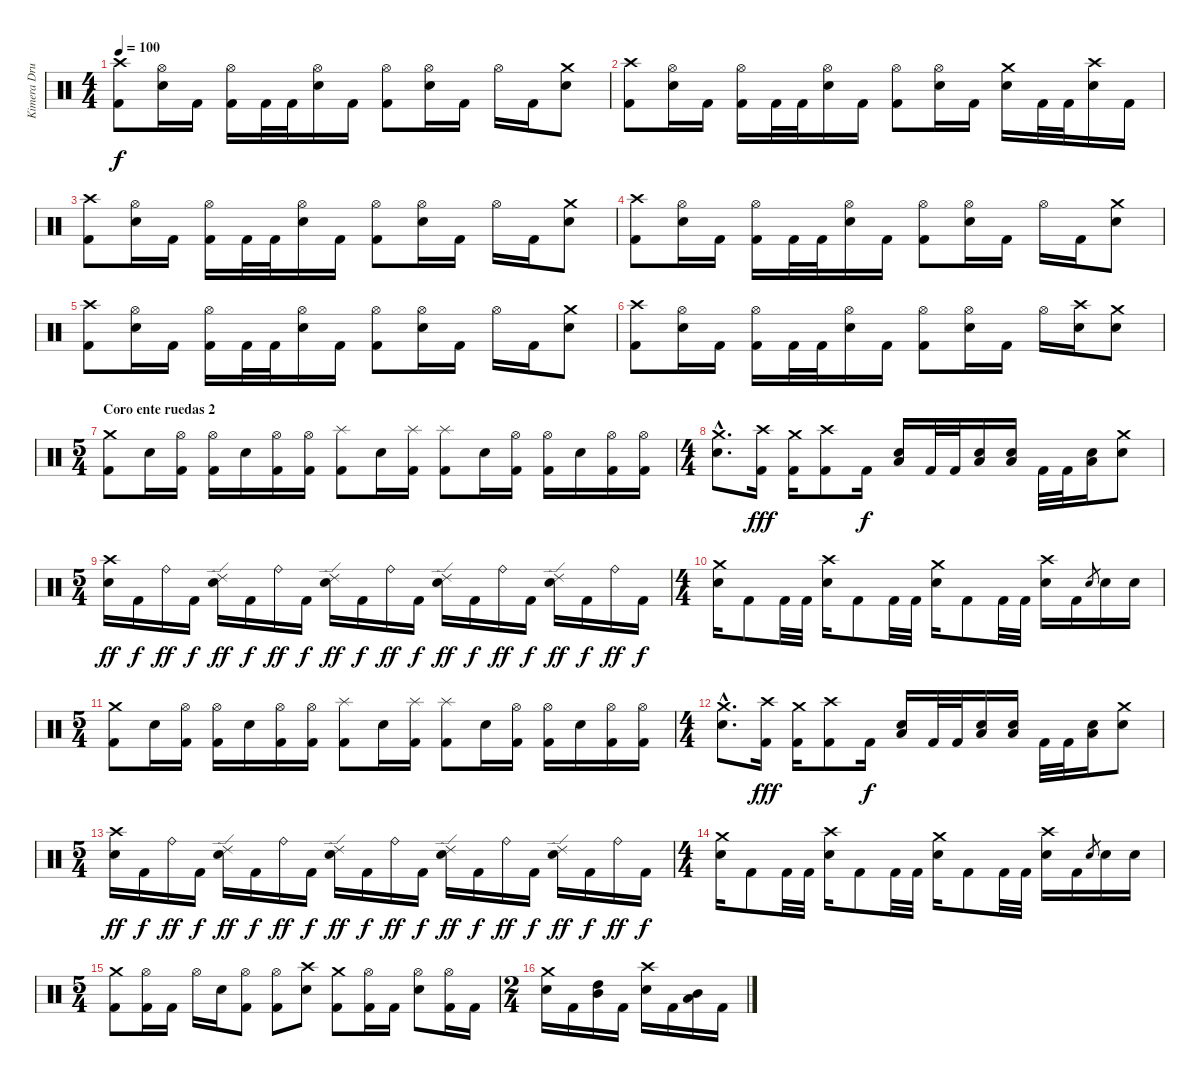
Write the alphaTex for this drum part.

\track ("Kimera Drummer" "Kimera Dru") {instrument percussion}
\staff {score}
\articulation defaults
\ts (4 4)
\tempo 100
\clef neutral
\ks c
("Crash high (hit)" "Kick (hit) 2").8{dy f} ("Hi-Hat (open)" "Electric Snare (hit)").16 "Kick (hit) 2".16 ("Hi-Hat (open)" "Kick (hit) 2").16 "Kick (hit) 2".32 "Kick (hit) 2".32 ("Hi-Hat (open)" "Electric Snare (hit)").16 "Kick (hit) 2".16 ("Hi-Hat (open)" "Kick (hit) 2").8 ("Hi-Hat (open)" "Electric Snare (hit)").16 "Kick (hit) 2".16 "Hi-Hat (open)".16 "Kick (hit) 2".16 ("Crash medium (hit)" "Electric Snare (hit)").8 |
("Crash high (hit)" "Kick (hit) 2").8 ("Hi-Hat (open)" "Electric Snare (hit)").16 "Kick (hit) 2".16 ("Hi-Hat (open)" "Kick (hit) 2").16 "Kick (hit) 2".32 "Kick (hit) 2".32 ("Hi-Hat (open)" "Electric Snare (hit)").16 "Kick (hit) 2".16 ("Hi-Hat (open)" "Kick (hit) 2").8 ("Hi-Hat (open)" "Electric Snare (hit)").16 "Kick (hit) 2".16 ("Crash medium (hit)" "Electric Snare (hit)").16 "Kick (hit) 2".32 "Kick (hit) 2".32 ("Crash high (hit)" "Electric Snare (hit)").16 "Kick (hit) 2".16 |
("Crash high (hit)" "Kick (hit) 2").8 ("Hi-Hat (open)" "Electric Snare (hit)").16 "Kick (hit) 2".16 ("Hi-Hat (open)" "Kick (hit) 2").16 "Kick (hit) 2".32 "Kick (hit) 2".32 ("Hi-Hat (open)" "Electric Snare (hit)").16 "Kick (hit) 2".16 ("Hi-Hat (open)" "Kick (hit) 2").8 ("Hi-Hat (open)" "Electric Snare (hit)").16 "Kick (hit) 2".16 "Hi-Hat (open)".16 "Kick (hit) 2".16 ("Crash medium (hit)" "Electric Snare (hit)").8 |
("Crash high (hit)" "Kick (hit) 2").8 ("Hi-Hat (open)" "Electric Snare (hit)").16 "Kick (hit) 2".16 ("Hi-Hat (open)" "Kick (hit) 2").16 "Kick (hit) 2".32 "Kick (hit) 2".32 ("Hi-Hat (open)" "Electric Snare (hit)").16 "Kick (hit) 2".16 ("Hi-Hat (open)" "Kick (hit) 2").8 ("Hi-Hat (open)" "Electric Snare (hit)").16 "Kick (hit) 2".16 "Hi-Hat (open)".16 "Kick (hit) 2".16 ("Crash medium (hit)" "Electric Snare (hit)").8 |
("Crash high (hit)" "Kick (hit) 2").8 ("Hi-Hat (open)" "Electric Snare (hit)").16 "Kick (hit) 2".16 ("Hi-Hat (open)" "Kick (hit) 2").16 "Kick (hit) 2".32 "Kick (hit) 2".32 ("Hi-Hat (open)" "Electric Snare (hit)").16 "Kick (hit) 2".16 ("Hi-Hat (open)" "Kick (hit) 2").8 ("Hi-Hat (open)" "Electric Snare (hit)").16 "Kick (hit) 2".16 "Hi-Hat (open)".16 "Kick (hit) 2".16 ("Crash medium (hit)" "Electric Snare (hit)").8 |
("Crash high (hit)" "Kick (hit) 2").8 ("Hi-Hat (open)" "Electric Snare (hit)").16 "Kick (hit) 2".16 ("Hi-Hat (open)" "Kick (hit) 2").16 "Kick (hit) 2".32 "Kick (hit) 2".32 ("Hi-Hat (open)" "Electric Snare (hit)").16 "Kick (hit) 2".16 ("Hi-Hat (open)" "Kick (hit) 2").8 ("Hi-Hat (open)" "Electric Snare (hit)").16 "Kick (hit) 2".16 "Hi-Hat (open)".16 ("Crash high (hit)" "Electric Snare (hit)").16 ("Crash medium (hit)" "Electric Snare (hit)").8 |
\ts (5 4)
\section ("" "Coro ente ruedas 2")
("Crash medium (hit)" "Kick (hit) 2").8 "Electric Snare (hit)".16 ("Hi-Hat (open)" "Kick (hit) 2").16 ("Hi-Hat (open)" "Kick (hit) 2").16 "Electric Snare (hit)".16 ("Hi-Hat (open)" "Kick (hit) 2").16 ("Hi-Hat (open)" "Kick (hit) 2").16 ("Splash (hit)" "Kick (hit) 2").8 "Electric Snare (hit)".16 ("Splash (hit)" "Kick (hit) 2").16 ("Splash (hit)" "Kick (hit) 2").8 "Electric Snare (hit)".16 ("Hi-Hat (open)" "Kick (hit) 2").16 ("Hi-Hat (open)" "Kick (hit) 2").16 "Electric Snare (hit)".16 ("Hi-Hat (open)" "Kick (hit) 2").16 ("Hi-Hat (open)" "Kick (hit) 2").16 |
\ts (4 4)
("Crash medium (hit)"{hac} "Electric Snare (hit)"{hac}).8{d} ("Crash high (hit)" "Kick (hit) 2").16{dy fff} ("Crash medium (hit)" "Kick (hit) 2").16 ("Crash high (hit)" "Kick (hit) 2").8 "Kick (hit) 2".16{dy f} ("Electric Snare (hit)" "Low Floor Tom (hit)").16 "Kick (hit) 2".32 "Kick (hit) 2".32 ("Electric Snare (hit)" "Low Floor Tom (hit)").16 ("Electric Snare (hit)" "Low Floor Tom (hit)").16 "Kick (hit) 2".32 "Kick (hit) 2".32 ("Electric Snare (hit)" "Low Floor Tom (hit)").16 ("Crash medium (hit)" "Electric Snare (hit)").8 |
\ts (5 4)
("Crash high (hit)" "Electric Snare (hit)").16{dy ff} "Kick (hit) 2".16{dy f} "Ride (bell)".16{dy ff} "Kick (hit) 2".16{dy f} ("Ride (edge) 2" "Electric Snare (hit)").16{dy ff} "Kick (hit) 2".16{dy f} "Ride (bell)".16{dy ff} "Kick (hit) 2".16{dy f} ("Ride (edge) 2" "Electric Snare (hit)").16{dy ff} "Kick (hit) 2".16{dy f} "Ride (bell)".16{dy ff} "Kick (hit) 2".16{dy f} ("Ride (edge) 2" "Electric Snare (hit)").16{dy ff} "Kick (hit) 2".16{dy f} "Ride (bell)".16{dy ff} "Kick (hit) 2".16{dy f} ("Ride (edge) 2" "Electric Snare (hit)").16{dy ff} "Kick (hit) 2".16{dy f} "Ride (bell)".16{dy ff} "Kick (hit) 2".16{dy f} |
\ts (4 4)
("Crash medium (hit)" "Electric Snare (hit)").16 "Kick (hit) 2".8 "Kick (hit) 2".32 "Kick (hit) 2".32 ("Crash high (hit)" "Electric Snare (hit)").16 "Kick (hit) 2".8 "Kick (hit) 2".32 "Kick (hit) 2".32 ("Crash medium (hit)" "Electric Snare (hit)").16 "Kick (hit) 2".8 "Kick (hit) 2".32 "Kick (hit) 2".32 ("Crash high (hit)" "Electric Snare (hit)").16 "Kick (hit) 2".16 "Electric Snare (hit)".8{gr} "Electric Snare (hit)".16 "Electric Snare (hit)".16 |
\ts (5 4)
("Crash medium (hit)" "Kick (hit) 2").8 "Electric Snare (hit)".16 ("Hi-Hat (open)" "Kick (hit) 2").16 ("Hi-Hat (open)" "Kick (hit) 2").16 "Electric Snare (hit)".16 ("Hi-Hat (open)" "Kick (hit) 2").16 ("Hi-Hat (open)" "Kick (hit) 2").16 ("Splash (hit)" "Kick (hit) 2").8 "Electric Snare (hit)".16 ("Splash (hit)" "Kick (hit) 2").16 ("Splash (hit)" "Kick (hit) 2").8 "Electric Snare (hit)".16 ("Hi-Hat (open)" "Kick (hit) 2").16 ("Hi-Hat (open)" "Kick (hit) 2").16 "Electric Snare (hit)".16 ("Hi-Hat (open)" "Kick (hit) 2").16 ("Hi-Hat (open)" "Kick (hit) 2").16 |
\ts (4 4)
("Crash medium (hit)"{hac} "Electric Snare (hit)"{hac}).8{d} ("Crash high (hit)" "Kick (hit) 2").16{dy fff} ("Crash medium (hit)" "Kick (hit) 2").16 ("Crash high (hit)" "Kick (hit) 2").8 "Kick (hit) 2".16{dy f} ("Electric Snare (hit)" "Low Floor Tom (hit)").16 "Kick (hit) 2".32 "Kick (hit) 2".32 ("Electric Snare (hit)" "Low Floor Tom (hit)").16 ("Electric Snare (hit)" "Low Floor Tom (hit)").16 "Kick (hit) 2".32 "Kick (hit) 2".32 ("Electric Snare (hit)" "Low Floor Tom (hit)").16 ("Crash medium (hit)" "Electric Snare (hit)").8 |
\ts (5 4)
("Crash high (hit)" "Electric Snare (hit)").16{dy ff} "Kick (hit) 2".16{dy f} "Ride (bell)".16{dy ff} "Kick (hit) 2".16{dy f} ("Ride (edge) 2" "Electric Snare (hit)").16{dy ff} "Kick (hit) 2".16{dy f} "Ride (bell)".16{dy ff} "Kick (hit) 2".16{dy f} ("Ride (edge) 2" "Electric Snare (hit)").16{dy ff} "Kick (hit) 2".16{dy f} "Ride (bell)".16{dy ff} "Kick (hit) 2".16{dy f} ("Ride (edge) 2" "Electric Snare (hit)").16{dy ff} "Kick (hit) 2".16{dy f} "Ride (bell)".16{dy ff} "Kick (hit) 2".16{dy f} ("Ride (edge) 2" "Electric Snare (hit)").16{dy ff} "Kick (hit) 2".16{dy f} "Ride (bell)".16{dy ff} "Kick (hit) 2".16{dy f} |
\ts (4 4)
("Crash medium (hit)" "Electric Snare (hit)").16 "Kick (hit) 2".8 "Kick (hit) 2".32 "Kick (hit) 2".32 ("Crash high (hit)" "Electric Snare (hit)").16 "Kick (hit) 2".8 "Kick (hit) 2".32 "Kick (hit) 2".32 ("Crash medium (hit)" "Electric Snare (hit)").16 "Kick (hit) 2".8 "Kick (hit) 2".32 "Kick (hit) 2".32 ("Crash high (hit)" "Electric Snare (hit)").16 "Kick (hit) 2".16 "Electric Snare (hit)".8{gr} "Electric Snare (hit)".16 "Electric Snare (hit)".16 |
\ts (5 4)
("Crash medium (hit)" "Kick (hit) 2").8 ("Hi-Hat (open)" "Kick (hit) 2").16 "Kick (hit) 2".16 "Hi-Hat (open)".16 "Electric Snare (hit)".16 ("Hi-Hat (open)" "Kick (hit) 2").8 ("Hi-Hat (open)" "Kick (hit) 2").8 ("Crash high (hit)" "Electric Snare (hit)").8 ("Crash medium (hit)" "Kick (hit) 2").8 ("Hi-Hat (open)" "Kick (hit) 2").16 "Kick (hit) 2".16 ("Hi-Hat (open)" "Electric Snare (hit)").8 ("Hi-Hat (open)" "Kick (hit) 2").16 "Kick (hit) 2".16 |
\ts (2 4)
("Crash medium (hit)" "Electric Snare (hit)").16 "Kick (hit) 2".16 ("High Tom (hit)" "Mid Tom (hit)").16 "Kick (hit) 2".16 ("Crash high (hit)" "Electric Snare (hit)").16 "Kick (hit) 2".16 ("Mid Tom (hit)" "Low Floor Tom (hit)").16 "Kick (hit) 2".16
